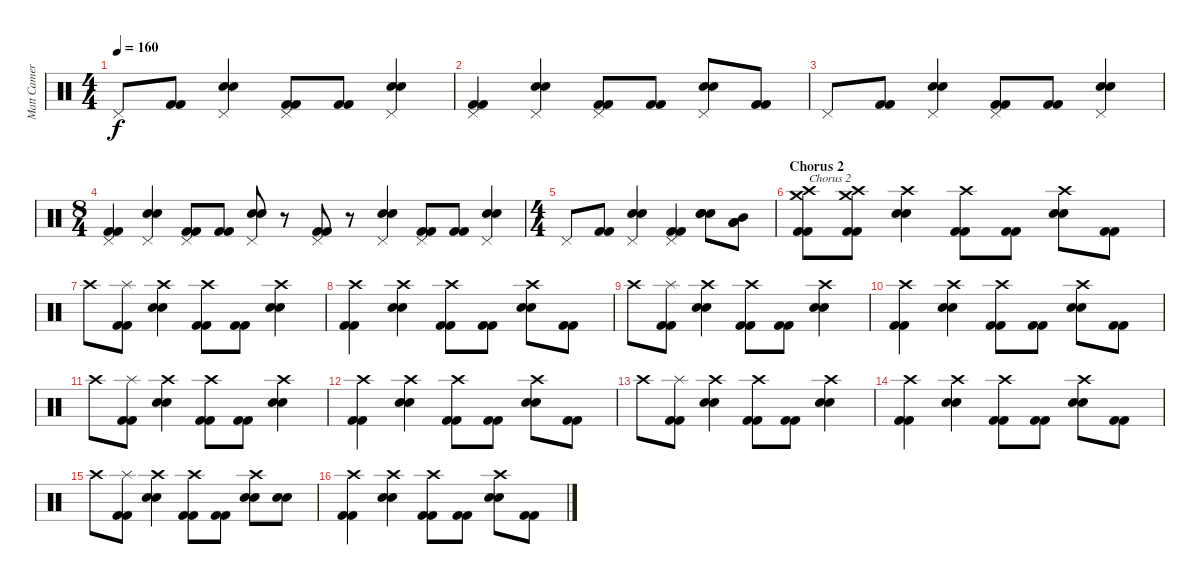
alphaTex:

\track ("Matt Cameron" "Matt Camer") {instrument percussion}
\staff {score}
\articulation defaults
\ts (4 4)
\tempo 160
\clef neutral
\ks c "Pedal Hi-Hat (hit)".8{dy f}
("Kick (hit) 2" "Kick (hit) 2").8 ("Electric Snare (hit)" "Electric Snare (hit)" "Pedal Hi-Hat (hit)").4 ("Kick (hit) 2" "Kick (hit) 2" "Pedal Hi-Hat (hit)").8 ("Kick (hit) 2" "Kick (hit) 2").8 ("Electric Snare (hit)" "Electric Snare (hit)" "Pedal Hi-Hat (hit)").4 |
("Kick (hit) 2" "Kick (hit) 2" "Pedal Hi-Hat (hit)").4 ("Electric Snare (hit)" "Electric Snare (hit)" "Pedal Hi-Hat (hit)").4 ("Kick (hit) 2" "Kick (hit) 2" "Pedal Hi-Hat (hit)").8 ("Kick (hit) 2" "Kick (hit) 2").8 ("Electric Snare (hit)" "Electric Snare (hit)" "Pedal Hi-Hat (hit)").8 ("Kick (hit) 2" "Kick (hit) 2").8 |
"Pedal Hi-Hat (hit)".8 ("Kick (hit) 2" "Kick (hit) 2").8 ("Electric Snare (hit)" "Electric Snare (hit)" "Pedal Hi-Hat (hit)").4 ("Kick (hit) 2" "Kick (hit) 2" "Pedal Hi-Hat (hit)").8 ("Kick (hit) 2" "Kick (hit) 2").8 ("Electric Snare (hit)" "Electric Snare (hit)" "Pedal Hi-Hat (hit)").4 |
\ts (8 4)
("Kick (hit) 2" "Kick (hit) 2" "Pedal Hi-Hat (hit)").4 ("Electric Snare (hit)" "Electric Snare (hit)" "Pedal Hi-Hat (hit)").4 ("Kick (hit) 2" "Kick (hit) 2" "Pedal Hi-Hat (hit)").8 ("Kick (hit) 2" "Kick (hit) 2").8 ("Electric Snare (hit)" "Electric Snare (hit)" "Pedal Hi-Hat (hit)").8 r.8 ("Kick (hit) 2" "Kick (hit) 2" "Pedal Hi-Hat (hit)").8 r.8 ("Electric Snare (hit)" "Electric Snare (hit)" "Pedal Hi-Hat (hit)").4 ("Kick (hit) 2" "Kick (hit) 2" "Pedal Hi-Hat (hit)").8 ("Kick (hit) 2" "Kick (hit) 2").8 ("Electric Snare (hit)" "Electric Snare (hit)" "Pedal Hi-Hat (hit)").4 |
\ts (4 4)
"Pedal Hi-Hat (hit)".8 ("Kick (hit) 2" "Kick (hit) 2").8 ("Electric Snare (hit)" "Electric Snare (hit)" "Pedal Hi-Hat (hit)").4 ("Kick (hit) 2" "Kick (hit) 2" "Pedal Hi-Hat (hit)").4 ("Electric Snare (hit)" "Electric Snare (hit)" "Snare (hit) 2").8 ("Low Tom (hit)" "Low Tom (hit)" "Mid Tom (hit)").8 |
\section ("" "Chorus 2")
("Crash medium (hit)" "Kick (hit) 2" "Kick (hit) 2" "Crash high (hit)").8{txt "Chorus 2"} ("Crash high (hit)" "Kick (hit) 2" "Kick (hit) 2" "Crash medium (hit)").8 ("Electric Snare (hit)" "Electric Snare (hit)" "Crash high (hit)").4 ("Kick (hit) 2" "Kick (hit) 2" "Crash high (hit)").8 ("Kick (hit) 2" "Kick (hit) 2").8 ("Electric Snare (hit)" "Electric Snare (hit)" "Crash high (hit)").8 ("Kick (hit) 2" "Kick (hit) 2").8 |
"Crash high (hit)".8 ("Kick (hit) 2" "Kick (hit) 2" "Splash (hit)").8 ("Electric Snare (hit)" "Electric Snare (hit)" "Crash high (hit)").4 ("Kick (hit) 2" "Kick (hit) 2" "Crash high (hit)").8 ("Kick (hit) 2" "Kick (hit) 2").8 ("Electric Snare (hit)" "Electric Snare (hit)" "Crash high (hit)").4 |
("Kick (hit) 2" "Kick (hit) 2" "Crash high (hit)").4 ("Electric Snare (hit)" "Electric Snare (hit)" "Crash high (hit)").4 ("Kick (hit) 2" "Kick (hit) 2" "Crash high (hit)").8 ("Kick (hit) 2" "Kick (hit) 2").8 ("Electric Snare (hit)" "Electric Snare (hit)" "Crash high (hit)").8 ("Kick (hit) 2" "Kick (hit) 2").8 |
"Crash high (hit)".8 ("Kick (hit) 2" "Kick (hit) 2" "Splash (hit)").8 ("Electric Snare (hit)" "Electric Snare (hit)" "Crash high (hit)").4 ("Kick (hit) 2" "Kick (hit) 2" "Crash high (hit)").8 ("Kick (hit) 2" "Kick (hit) 2").8 ("Electric Snare (hit)" "Electric Snare (hit)" "Crash high (hit)").4 |
("Kick (hit) 2" "Kick (hit) 2" "Crash high (hit)").4 ("Electric Snare (hit)" "Electric Snare (hit)" "Crash high (hit)").4 ("Kick (hit) 2" "Kick (hit) 2" "Crash high (hit)").8 ("Kick (hit) 2" "Kick (hit) 2").8 ("Electric Snare (hit)" "Electric Snare (hit)" "Crash high (hit)").8 ("Kick (hit) 2" "Kick (hit) 2").8 |
"Crash high (hit)".8 ("Kick (hit) 2" "Kick (hit) 2" "Splash (hit)").8 ("Electric Snare (hit)" "Electric Snare (hit)" "Crash high (hit)").4 ("Kick (hit) 2" "Kick (hit) 2" "Crash high (hit)").8 ("Kick (hit) 2" "Kick (hit) 2").8 ("Electric Snare (hit)" "Electric Snare (hit)" "Crash high (hit)").4 |
("Kick (hit) 2" "Kick (hit) 2" "Crash high (hit)").4 ("Electric Snare (hit)" "Electric Snare (hit)" "Crash high (hit)").4 ("Kick (hit) 2" "Kick (hit) 2" "Crash high (hit)").8 ("Kick (hit) 2" "Kick (hit) 2").8 ("Electric Snare (hit)" "Electric Snare (hit)" "Crash high (hit)").8 ("Kick (hit) 2" "Kick (hit) 2").8 |
"Crash high (hit)".8 ("Kick (hit) 2" "Kick (hit) 2" "Splash (hit)").8 ("Electric Snare (hit)" "Electric Snare (hit)" "Crash high (hit)").4 ("Kick (hit) 2" "Kick (hit) 2" "Crash high (hit)").8 ("Kick (hit) 2" "Kick (hit) 2").8 ("Electric Snare (hit)" "Electric Snare (hit)" "Crash high (hit)").4 |
("Kick (hit) 2" "Kick (hit) 2" "Crash high (hit)").4 ("Electric Snare (hit)" "Electric Snare (hit)" "Crash high (hit)").4 ("Kick (hit) 2" "Kick (hit) 2" "Crash high (hit)").8 ("Kick (hit) 2" "Kick (hit) 2").8 ("Electric Snare (hit)" "Electric Snare (hit)" "Crash high (hit)").8 ("Kick (hit) 2" "Kick (hit) 2").8 |
"Crash high (hit)".8 ("Kick (hit) 2" "Kick (hit) 2" "Splash (hit)").8 ("Electric Snare (hit)" "Electric Snare (hit)" "Crash high (hit)").4 ("Kick (hit) 2" "Kick (hit) 2" "Crash high (hit)").8 ("Kick (hit) 2" "Kick (hit) 2").8 ("Electric Snare (hit)" "Electric Snare (hit)" "Crash high (hit)").8 ("Electric Snare (hit)" "Electric Snare (hit)").8 |
("Kick (hit) 2" "Kick (hit) 2" "Crash high (hit)").4 ("Electric Snare (hit)" "Electric Snare (hit)" "Crash high (hit)").4 ("Kick (hit) 2" "Kick (hit) 2" "Crash high (hit)").8 ("Kick (hit) 2" "Kick (hit) 2").8 ("Electric Snare (hit)" "Electric Snare (hit)" "Crash high (hit)").8 ("Kick (hit) 2" "Kick (hit) 2").8
